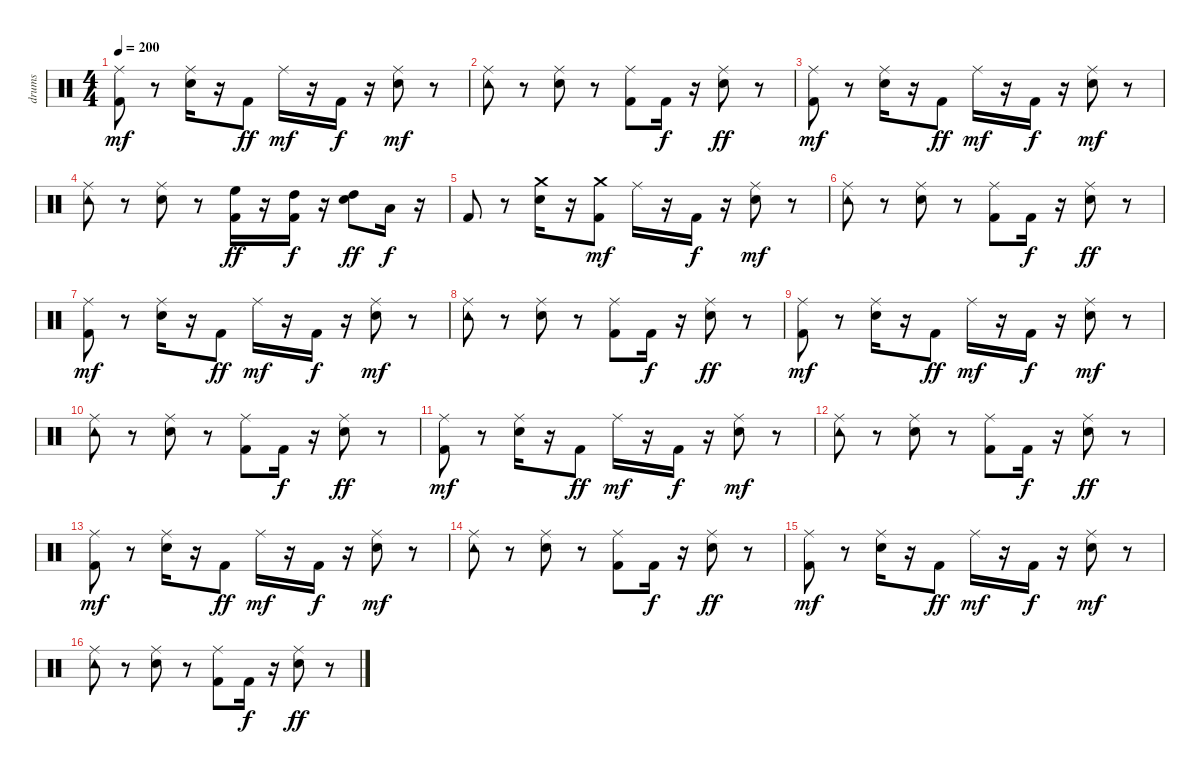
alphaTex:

\track ("drums" "drums") {instrument percussion}
\staff {score}
\articulation defaults
\ts (4 4)
\tempo 200
\clef neutral
\ks c
("Kick (hit) 2" "Ride (middle)").8{dy mf} r.8 ("Snare (hit) 2" "Ride (middle)").16 r.16 "Kick (hit) 2".8{dy ff} "Ride (middle)".16{dy mf} r.16 "Kick (hit) 2".16{dy f} r.16 ("Snare (hit) 2" "Ride (middle)").8{dy mf} r.8 |
("Tambourine (hit)" "Ride (middle)").8 r.8 ("Snare (hit) 2" "Ride (middle)").8 r.8 ("Kick (hit) 2" "Ride (middle)").8 "Kick (hit) 2".16{dy f} r.16 ("Snare (hit) 2" "Ride (middle)").8{dy ff} r.8 |
("Kick (hit) 2" "Ride (middle)").8{dy mf} r.8 ("Snare (hit) 2" "Ride (middle)").16 r.16 "Kick (hit) 2".8{dy ff} "Ride (middle)".16{dy mf} r.16 "Kick (hit) 2".16{dy f} r.16 ("Snare (hit) 2" "Ride (middle)").8{dy mf} r.8 |
("Tambourine (hit)" "Ride (middle)").8 r.8 ("Snare (hit) 2" "Ride (middle)").8 r.8 ("Kick (hit) 2" "High Floor Tom (hit)").16{dy ff} r.16 ("Kick (hit) 2" "High Tom (hit)").16{dy f} r.16 ("Snare (hit) 2" "High Tom (hit)").8{dy ff} "Low Tom (hit)".16{dy f} r.16 |
"Kick (hit) 2".8 r.8 ("Snare (hit) 2" "Crash medium (hit)").16 r.16 ("Kick (hit) 2" "Crash medium (hit)").8{dy mf} "Ride (middle)".16 r.16 "Kick (hit) 2".16{dy f} r.16 ("Snare (hit) 2" "Ride (middle)").8{dy mf} r.8 |
("Tambourine (hit)" "Ride (middle)").8 r.8 ("Snare (hit) 2" "Ride (middle)").8 r.8 ("Kick (hit) 2" "Ride (middle)").8 "Kick (hit) 2".16{dy f} r.16 ("Snare (hit) 2" "Ride (middle)").8{dy ff} r.8 |
("Kick (hit) 2" "Ride (middle)").8{dy mf} r.8 ("Snare (hit) 2" "Ride (middle)").16 r.16 "Kick (hit) 2".8{dy ff} "Ride (middle)".16{dy mf} r.16 "Kick (hit) 2".16{dy f} r.16 ("Snare (hit) 2" "Ride (middle)").8{dy mf} r.8 |
("Tambourine (hit)" "Ride (middle)").8 r.8 ("Snare (hit) 2" "Ride (middle)").8 r.8 ("Kick (hit) 2" "Ride (middle)").8 "Kick (hit) 2".16{dy f} r.16 ("Snare (hit) 2" "Ride (middle)").8{dy ff} r.8 |
("Kick (hit) 2" "Ride (middle)").8{dy mf volume 10} r.8 ("Snare (hit) 2" "Ride (middle)").16 r.16 "Kick (hit) 2".8{dy ff} "Ride (middle)".16{dy mf} r.16 "Kick (hit) 2".16{dy f} r.16 ("Snare (hit) 2" "Ride (middle)").8{dy mf} r.8 |
("Tambourine (hit)" "Ride (middle)").8 r.8 ("Snare (hit) 2" "Ride (middle)").8 r.8 ("Kick (hit) 2" "Ride (middle)").8 "Kick (hit) 2".16{dy f} r.16 ("Snare (hit) 2" "Ride (middle)").8{dy ff} r.8 |
("Kick (hit) 2" "Ride (middle)").8{dy mf volume 8} r.8 ("Snare (hit) 2" "Ride (middle)").16 r.16 "Kick (hit) 2".8{dy ff} "Ride (middle)".16{dy mf} r.16 "Kick (hit) 2".16{dy f} r.16 ("Snare (hit) 2" "Ride (middle)").8{dy mf} r.8 |
("Tambourine (hit)" "Ride (middle)").8 r.8 ("Snare (hit) 2" "Ride (middle)").8 r.8 ("Kick (hit) 2" "Ride (middle)").8 "Kick (hit) 2".16{dy f} r.16 ("Snare (hit) 2" "Ride (middle)").8{dy ff} r.8 |
("Kick (hit) 2" "Ride (middle)").8{dy mf volume 6} r.8 ("Snare (hit) 2" "Ride (middle)").16 r.16 "Kick (hit) 2".8{dy ff} "Ride (middle)".16{dy mf} r.16 "Kick (hit) 2".16{dy f} r.16 ("Snare (hit) 2" "Ride (middle)").8{dy mf} r.8 |
("Tambourine (hit)" "Ride (middle)").8 r.8 ("Snare (hit) 2" "Ride (middle)").8 r.8 ("Kick (hit) 2" "Ride (middle)").8 "Kick (hit) 2".16{dy f} r.16 ("Snare (hit) 2" "Ride (middle)").8{dy ff} r.8 |
("Kick (hit) 2" "Ride (middle)").8{dy mf volume 4} r.8 ("Snare (hit) 2" "Ride (middle)").16 r.16 "Kick (hit) 2".8{dy ff} "Ride (middle)".16{dy mf} r.16 "Kick (hit) 2".16{dy f} r.16 ("Snare (hit) 2" "Ride (middle)").8{dy mf} r.8 |
("Tambourine (hit)" "Ride (middle)").8 r.8 ("Snare (hit) 2" "Ride (middle)").8 r.8 ("Kick (hit) 2" "Ride (middle)").8 "Kick (hit) 2".16{dy f} r.16 ("Snare (hit) 2" "Ride (middle)").8{dy ff} r.8
